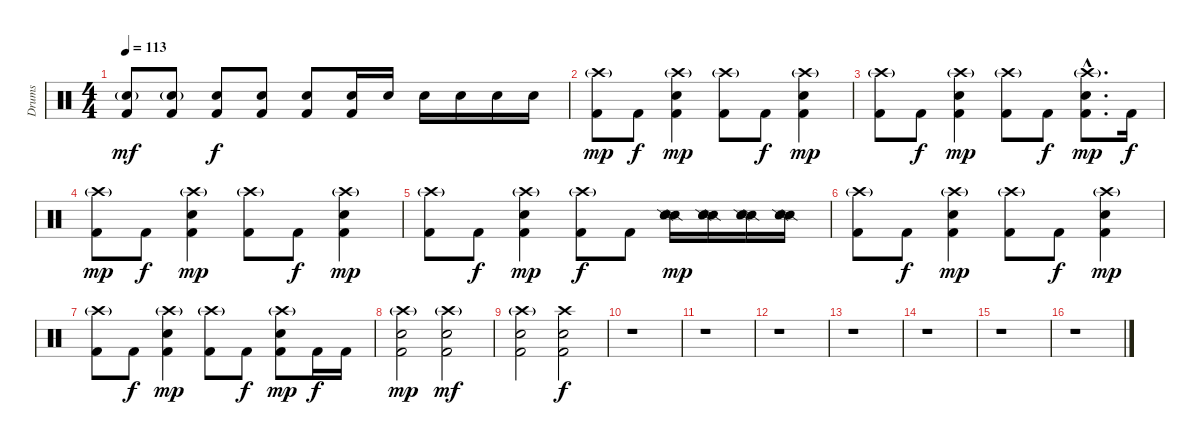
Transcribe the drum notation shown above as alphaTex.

\track ("Drums" "Drums") {instrument percussion}
\staff {score}
\articulation defaults
\ts (4 4)
\tempo 113
\clef neutral
\ks c
("Electric Snare (hit)"{g} "Kick (hit) 2").8{dy mf} ("Electric Snare (hit)"{g} "Kick (hit) 2").8 ("Electric Snare (hit)" "Kick (hit) 2").8{dy f} ("Electric Snare (hit)" "Kick (hit) 2").8 ("Electric Snare (hit)" "Kick (hit) 2").8 ("Electric Snare (hit)" "Kick (hit) 2").16 "Electric Snare (hit)".16 "Electric Snare (hit)".16 "Electric Snare (hit)".16 "Electric Snare (hit)".16 "Electric Snare (hit)".16 |
("Crash high (hit)"{g} "Kick (hit) 2").8{dy mp} "Kick (hit) 2".8{dy f} ("Crash high (hit)"{g} "Electric Snare (hit)" "Kick (hit) 2").4{dy mp} ("Crash high (hit)"{g} "Kick (hit) 2").8 "Kick (hit) 2".8{dy f} ("Crash high (hit)"{g} "Electric Snare (hit)" "Kick (hit) 2").4{dy mp} |
("Crash high (hit)"{g} "Kick (hit) 2").8 "Kick (hit) 2".8{dy f} ("Crash high (hit)"{g} "Electric Snare (hit)" "Kick (hit) 2").4{dy mp} ("Crash high (hit)"{g} "Kick (hit) 2").8 "Kick (hit) 2".8{dy f} ("Crash high (hit)"{g hac} "Electric Snare (hit)"{hac} "Kick (hit) 2"{hac}).8{d dy mp} "Kick (hit) 2".16{dy f} |
("Crash high (hit)"{g} "Kick (hit) 2").8{dy mp} "Kick (hit) 2".8{dy f} ("Crash high (hit)"{g} "Electric Snare (hit)" "Kick (hit) 2").4{dy mp} ("Crash high (hit)"{g} "Kick (hit) 2").8 "Kick (hit) 2".8{dy f} ("Crash high (hit)"{g} "Electric Snare (hit)" "Kick (hit) 2").4{dy mp} |
("Crash high (hit)"{g} "Kick (hit) 2").8 "Kick (hit) 2".8{dy f} ("Crash high (hit)"{g} "Electric Snare (hit)" "Kick (hit) 2").4{dy mp} ("Crash high (hit)"{g} "Kick (hit) 2").8{dy f} "Kick (hit) 2".8 ("Snare (side stick) 2" "Snare (side stick) 2" "Electric Snare (hit)").16{dy mp} ("Snare (side stick) 2" "Snare (side stick) 2" "Electric Snare (hit)").16 ("Snare (side stick) 2" "Snare (side stick) 2" "Electric Snare (hit)").16 ("Snare (side stick) 2" "Snare (side stick) 2" "Electric Snare (hit)").16 |
("Crash high (hit)"{g} "Kick (hit) 2").8 "Kick (hit) 2".8{dy f} ("Crash high (hit)"{g} "Electric Snare (hit)" "Kick (hit) 2").4{dy mp} ("Crash high (hit)"{g} "Kick (hit) 2").8 "Kick (hit) 2".8{dy f} ("Crash high (hit)"{g} "Electric Snare (hit)" "Kick (hit) 2").4{dy mp} |
("Crash high (hit)"{g} "Kick (hit) 2").8 "Kick (hit) 2".8{dy f} ("Crash high (hit)"{g} "Electric Snare (hit)" "Kick (hit) 2").4{dy mp} ("Crash high (hit)"{g} "Kick (hit) 2").8 "Kick (hit) 2".8{dy f} ("Crash high (hit)"{g} "Electric Snare (hit)" "Kick (hit) 2").8{dy mp} "Kick (hit) 2".16{dy f} "Kick (hit) 2".16 |
("Crash high (hit)"{g} "Electric Snare (hit)" "Kick (hit) 2").2{dy mp} ("Crash high (hit)"{g} "Electric Snare (hit)" "Kick (hit) 2").2{dy mf} |
("Crash high (hit)"{g} "Electric Snare (hit)" "Kick (hit) 2").2 ("Crash high (hit)" "Electric Snare (hit)" "Kick (hit) 2").2{dy f} |
r.1 |
r.1 |
r.1 |
r.1 |
r.1 |
r.1 |
r.1
